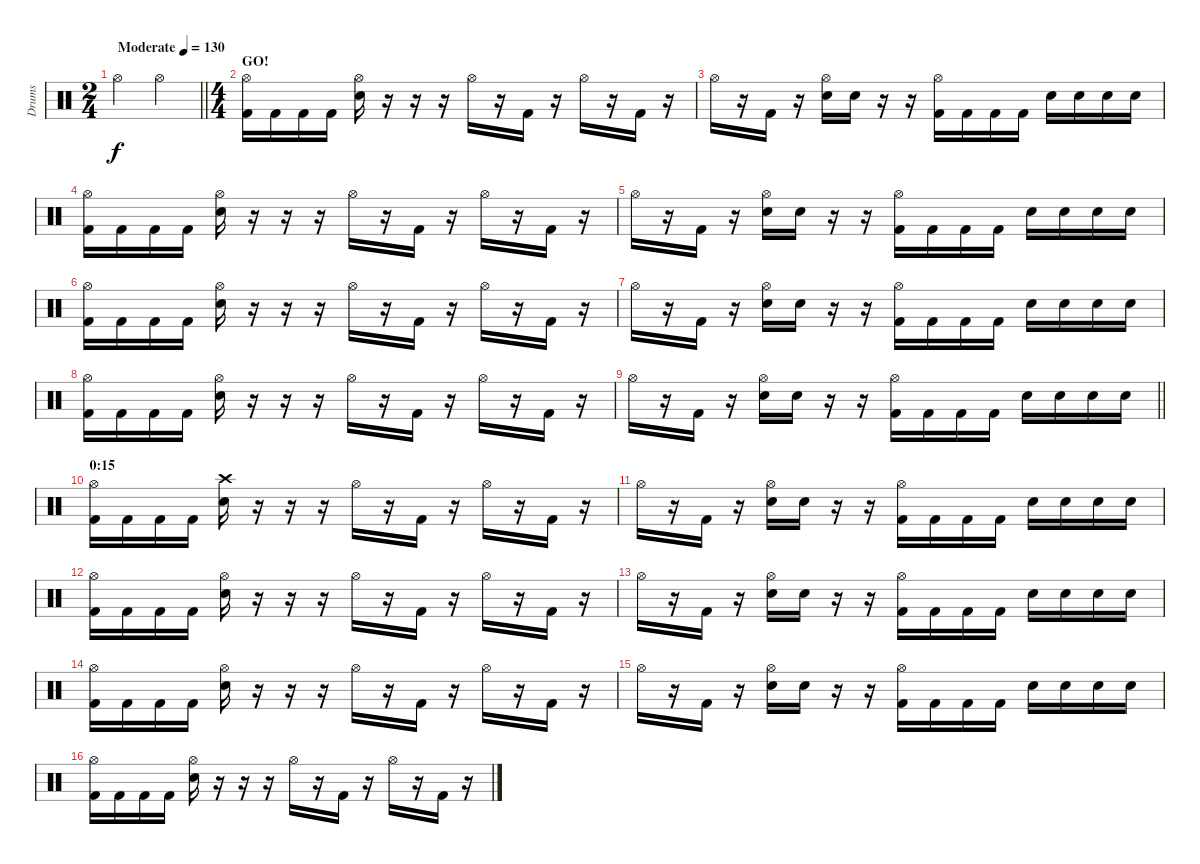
\track ("Drums" "Drums") {instrument percussion}
\staff {score}
\articulation defaults
\ts (2 4)
\tempo (130 "Moderate")
\clef neutral
\barLineRight lightlight
\ks c "Hi-Hat (open)".4{dy f} "Hi-Hat (open)".4
|
\ts (4 4)
\section ("" "GO!")
("Hi-Hat (open)" "Kick (hit) 2").16 "Kick (hit) 2".16 "Kick (hit) 2".16 "Kick (hit) 2".16 ("Hi-Hat (open)" "Electric Snare (hit)").16 r.16 r.16 r.16 "Hi-Hat (open)".16 r.16 "Kick (hit) 2".16 r.16 "Hi-Hat (open)".16 r.16 "Kick (hit) 2".16 r.16 |
"Hi-Hat (open)".16 r.16 "Kick (hit) 2".16 r.16 ("Hi-Hat (open)" "Electric Snare (hit)").16 "Electric Snare (hit)".16 r.16 r.16 ("Hi-Hat (open)" "Kick (hit) 2").16 "Kick (hit) 2".16 "Kick (hit) 2".16 "Kick (hit) 2".16 "Electric Snare (hit)".16 "Electric Snare (hit)".16 "Electric Snare (hit)".16 "Electric Snare (hit)".16 |
("Hi-Hat (open)" "Kick (hit) 2").16 "Kick (hit) 2".16 "Kick (hit) 2".16 "Kick (hit) 2".16 ("Hi-Hat (open)" "Electric Snare (hit)").16 r.16 r.16 r.16 "Hi-Hat (open)".16 r.16 "Kick (hit) 2".16 r.16 "Hi-Hat (open)".16 r.16 "Kick (hit) 2".16 r.16 |
"Hi-Hat (open)".16 r.16 "Kick (hit) 2".16 r.16 ("Hi-Hat (open)" "Electric Snare (hit)").16 "Electric Snare (hit)".16 r.16 r.16 ("Hi-Hat (open)" "Kick (hit) 2").16 "Kick (hit) 2".16 "Kick (hit) 2".16 "Kick (hit) 2".16 "Electric Snare (hit)".16 "Electric Snare (hit)".16 "Electric Snare (hit)".16 "Electric Snare (hit)".16 |
("Hi-Hat (open)" "Kick (hit) 2").16 "Kick (hit) 2".16 "Kick (hit) 2".16 "Kick (hit) 2".16 ("Hi-Hat (open)" "Electric Snare (hit)").16 r.16 r.16 r.16 "Hi-Hat (open)".16 r.16 "Kick (hit) 2".16 r.16 "Hi-Hat (open)".16 r.16 "Kick (hit) 2".16 r.16 |
"Hi-Hat (open)".16 r.16 "Kick (hit) 2".16 r.16 ("Hi-Hat (open)" "Electric Snare (hit)").16 "Electric Snare (hit)".16 r.16 r.16 ("Hi-Hat (open)" "Kick (hit) 2").16 "Kick (hit) 2".16 "Kick (hit) 2".16 "Kick (hit) 2".16 "Electric Snare (hit)".16 "Electric Snare (hit)".16 "Electric Snare (hit)".16 "Electric Snare (hit)".16 |
("Hi-Hat (open)" "Kick (hit) 2").16 "Kick (hit) 2".16 "Kick (hit) 2".16 "Kick (hit) 2".16 ("Hi-Hat (open)" "Electric Snare (hit)").16 r.16 r.16 r.16 "Hi-Hat (open)".16 r.16 "Kick (hit) 2".16 r.16 "Hi-Hat (open)".16 r.16 "Kick (hit) 2".16 r.16 |
\barLineRight lightlight "Hi-Hat (open)".16
r.16 "Kick (hit) 2".16 r.16 ("Hi-Hat (open)" "Electric Snare (hit)").16 "Electric Snare (hit)".16 r.16 r.16 ("Hi-Hat (open)" "Kick (hit) 2").16 "Kick (hit) 2".16 "Kick (hit) 2".16 "Kick (hit) 2".16 "Electric Snare (hit)".16 "Electric Snare (hit)".16 "Electric Snare (hit)".16 "Electric Snare (hit)".16 |
\section ("" "0:15")
("Hi-Hat (open)" "Kick (hit) 2").16 "Kick (hit) 2".16 "Kick (hit) 2".16 "Kick (hit) 2".16 ("Crash high (hit)" "Electric Snare (hit)").16 r.16 r.16 r.16 "Hi-Hat (open)".16 r.16 "Kick (hit) 2".16 r.16 "Hi-Hat (open)".16 r.16 "Kick (hit) 2".16 r.16 |
"Hi-Hat (open)".16 r.16 "Kick (hit) 2".16 r.16 ("Hi-Hat (open)" "Electric Snare (hit)").16 "Electric Snare (hit)".16 r.16 r.16 ("Hi-Hat (open)" "Kick (hit) 2").16 "Kick (hit) 2".16 "Kick (hit) 2".16 "Kick (hit) 2".16 "Electric Snare (hit)".16 "Electric Snare (hit)".16 "Electric Snare (hit)".16 "Electric Snare (hit)".16 |
("Hi-Hat (open)" "Kick (hit) 2").16 "Kick (hit) 2".16 "Kick (hit) 2".16 "Kick (hit) 2".16 ("Hi-Hat (open)" "Electric Snare (hit)").16 r.16 r.16 r.16 "Hi-Hat (open)".16 r.16 "Kick (hit) 2".16 r.16 "Hi-Hat (open)".16 r.16 "Kick (hit) 2".16 r.16 |
"Hi-Hat (open)".16 r.16 "Kick (hit) 2".16 r.16 ("Hi-Hat (open)" "Electric Snare (hit)").16 "Electric Snare (hit)".16 r.16 r.16 ("Hi-Hat (open)" "Kick (hit) 2").16 "Kick (hit) 2".16 "Kick (hit) 2".16 "Kick (hit) 2".16 "Electric Snare (hit)".16 "Electric Snare (hit)".16 "Electric Snare (hit)".16 "Electric Snare (hit)".16 |
("Hi-Hat (open)" "Kick (hit) 2").16 "Kick (hit) 2".16 "Kick (hit) 2".16 "Kick (hit) 2".16 ("Hi-Hat (open)" "Electric Snare (hit)").16 r.16 r.16 r.16 "Hi-Hat (open)".16 r.16 "Kick (hit) 2".16 r.16 "Hi-Hat (open)".16 r.16 "Kick (hit) 2".16 r.16 |
"Hi-Hat (open)".16 r.16 "Kick (hit) 2".16 r.16 ("Hi-Hat (open)" "Electric Snare (hit)").16 "Electric Snare (hit)".16 r.16 r.16 ("Hi-Hat (open)" "Kick (hit) 2").16 "Kick (hit) 2".16 "Kick (hit) 2".16 "Kick (hit) 2".16 "Electric Snare (hit)".16 "Electric Snare (hit)".16 "Electric Snare (hit)".16 "Electric Snare (hit)".16 |
("Hi-Hat (open)" "Kick (hit) 2").16 "Kick (hit) 2".16 "Kick (hit) 2".16 "Kick (hit) 2".16 ("Hi-Hat (open)" "Electric Snare (hit)").16 r.16 r.16 r.16 "Hi-Hat (open)".16 r.16 "Kick (hit) 2".16 r.16 "Hi-Hat (open)".16 r.16 "Kick (hit) 2".16 r.16
